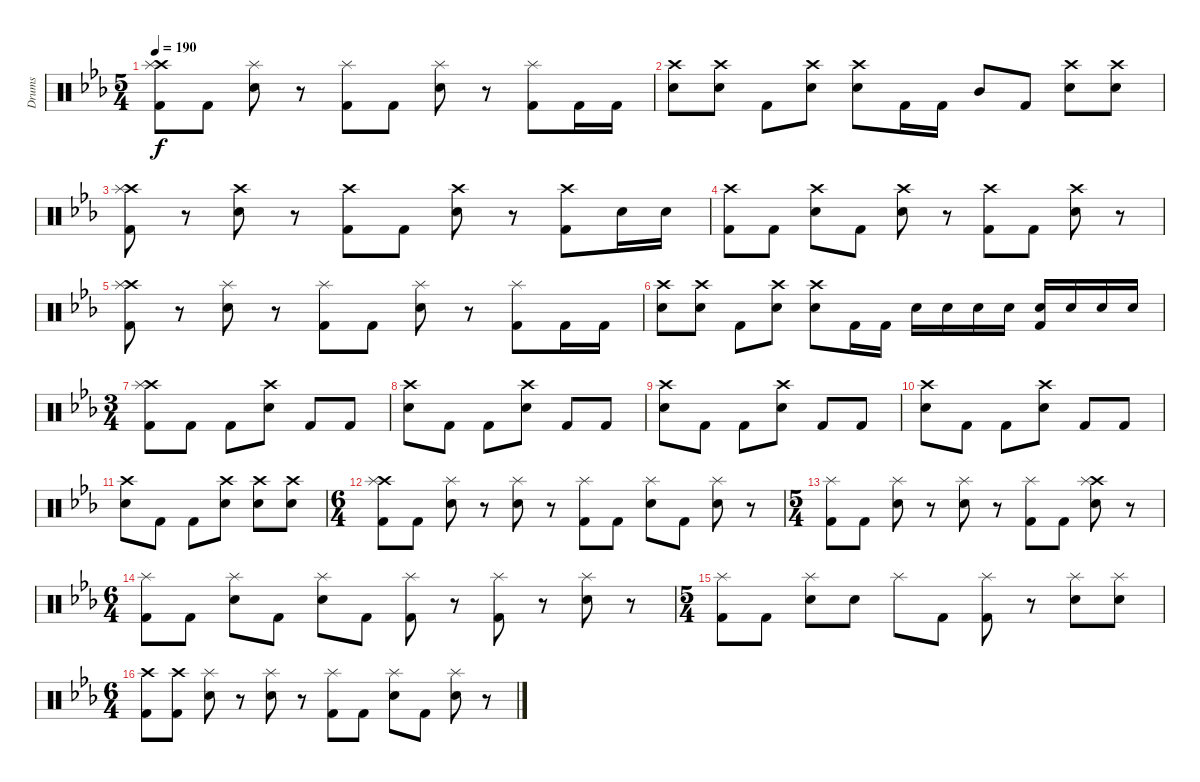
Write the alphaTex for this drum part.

\track ("Drums" "Drums") {instrument percussion}
\staff {score}
\articulation defaults
\ts (5 4)
\tempo 190
\clef neutral
\ks eb
("Kick (hit) 2" "Crash high (hit)" "Splash (hit)").8{dy f} "Kick (hit) 2".8 ("Electric Snare (hit)" "Splash (hit)").8 r.8 ("Kick (hit) 2" "Splash (hit)").8 "Kick (hit) 2".8 ("Electric Snare (hit)" "Splash (hit)").8 r.8 ("Kick (hit) 2" "Splash (hit)").8 "Kick (hit) 2".16 "Kick (hit) 2".16 |
("Electric Snare (hit)" "Crash high (hit)").8 ("Electric Snare (hit)" "Crash high (hit)").8 "Kick (hit) 2".8 ("Electric Snare (hit)" "Crash high (hit)").8 ("Electric Snare (hit)" "Crash high (hit)").8 "Kick (hit) 2".16 "Kick (hit) 2".16 "Mid Tom (hit)".8 "Kick (hit) 2".8 ("Electric Snare (hit)" "Crash high (hit)").8 ("Electric Snare (hit)" "Crash high (hit)").8 |
("Kick (hit) 2" "Crash high (hit)" "Splash (hit)").8 r.8 ("Electric Snare (hit)" "Crash high (hit)").8 r.8 ("Kick (hit) 2" "Crash high (hit)").8 "Kick (hit) 2".8 ("Electric Snare (hit)" "Crash high (hit)").8 r.8 ("Kick (hit) 2" "Crash high (hit)").8 "Electric Snare (hit)".16 "Electric Snare (hit)".16 |
("Kick (hit) 2" "Crash high (hit)").8 "Kick (hit) 2".8 ("Electric Snare (hit)" "Crash high (hit)").8 "Kick (hit) 2".8 ("Electric Snare (hit)" "Crash high (hit)").8 r.8 ("Kick (hit) 2" "Crash high (hit)").8 "Kick (hit) 2".8 ("Electric Snare (hit)" "Crash high (hit)").8 r.8 |
("Kick (hit) 2" "Crash high (hit)" "Splash (hit)").8 r.8 ("Electric Snare (hit)" "Splash (hit)").8 r.8 ("Kick (hit) 2" "Splash (hit)").8 "Kick (hit) 2".8 ("Electric Snare (hit)" "Splash (hit)").8 r.8 ("Kick (hit) 2" "Splash (hit)").8 "Kick (hit) 2".16 "Kick (hit) 2".16 |
("Electric Snare (hit)" "Crash high (hit)").8 ("Electric Snare (hit)" "Crash high (hit)").8 "Kick (hit) 2".8 ("Electric Snare (hit)" "Crash high (hit)").8 ("Electric Snare (hit)" "Crash high (hit)").8 "Kick (hit) 2".16 "Kick (hit) 2".16 "Electric Snare (hit)".16 "Electric Snare (hit)".16 "Electric Snare (hit)".16 "Electric Snare (hit)".16 ("Kick (hit) 2" "Electric Snare (hit)").16 "Electric Snare (hit)".16 "Electric Snare (hit)".16 "Electric Snare (hit)".16 |
\ts (3 4)
("Kick (hit) 2" "Crash high (hit)" "Splash (hit)").8 "Kick (hit) 2".8 "Kick (hit) 2".8 ("Electric Snare (hit)" "Crash high (hit)").8 "Kick (hit) 2".8 "Kick (hit) 2".8 |
("Electric Snare (hit)" "Crash high (hit)").8 "Kick (hit) 2".8 "Kick (hit) 2".8 ("Electric Snare (hit)" "Crash high (hit)").8 "Kick (hit) 2".8 "Kick (hit) 2".8 |
("Electric Snare (hit)" "Crash high (hit)").8 "Kick (hit) 2".8 "Kick (hit) 2".8 ("Electric Snare (hit)" "Crash high (hit)").8 "Kick (hit) 2".8 "Kick (hit) 2".8 |
("Electric Snare (hit)" "Crash high (hit)").8 "Kick (hit) 2".8 "Kick (hit) 2".8 ("Electric Snare (hit)" "Crash high (hit)").8 "Kick (hit) 2".8 "Kick (hit) 2".8 |
("Electric Snare (hit)" "Crash high (hit)").8 "Kick (hit) 2".8 "Kick (hit) 2".8 ("Electric Snare (hit)" "Crash high (hit)").8 ("Electric Snare (hit)" "Crash high (hit)").8 ("Electric Snare (hit)" "Crash high (hit)").8 |
\ts (6 4)
("Kick (hit) 2" "Crash high (hit)" "Splash (hit)").8 "Kick (hit) 2".8 ("Electric Snare (hit)" "Splash (hit)").8 r.8 ("Electric Snare (hit)" "Splash (hit)").8 r.8 ("Kick (hit) 2" "Splash (hit)").8 "Kick (hit) 2".8 ("Electric Snare (hit)" "Splash (hit)").8 "Kick (hit) 2".8 ("Electric Snare (hit)" "Splash (hit)").8 r.8 |
\ts (5 4)
("Kick (hit) 2" "Splash (hit)").8 "Kick (hit) 2".8 ("Electric Snare (hit)" "Splash (hit)").8 r.8 ("Electric Snare (hit)" "Splash (hit)").8 r.8 ("Kick (hit) 2" "Splash (hit)").8 "Kick (hit) 2".8 ("Electric Snare (hit)" "Crash high (hit)" "Splash (hit)").8 r.8 |
\ts (6 4)
("Kick (hit) 2" "Splash (hit)").8 "Kick (hit) 2".8 ("Electric Snare (hit)" "Splash (hit)").8 "Kick (hit) 2".8 ("Electric Snare (hit)" "Splash (hit)").8 "Kick (hit) 2".8 ("Kick (hit) 2" "Splash (hit)").8 r.8 ("Kick (hit) 2" "Splash (hit)").8 r.8 ("Electric Snare (hit)" "Splash (hit)").8 r.8 |
\ts (5 4)
("Kick (hit) 2" "Splash (hit)").8 "Kick (hit) 2".8 ("Electric Snare (hit)" "Splash (hit)").8 "Electric Snare (hit)".8 "Splash (hit)".8 "Kick (hit) 2".8 ("Kick (hit) 2" "Splash (hit)").8 r.8 ("Electric Snare (hit)" "Splash (hit)").8 ("Electric Snare (hit)" "Splash (hit)").8 |
\ts (6 4)
("Kick (hit) 2" "Crash high (hit)").8 ("Kick (hit) 2" "Crash high (hit)").8 ("Electric Snare (hit)" "Splash (hit)").8 r.8 ("Electric Snare (hit)" "Splash (hit)").8 r.8 ("Kick (hit) 2" "Splash (hit)").8 "Kick (hit) 2".8 ("Electric Snare (hit)" "Splash (hit)").8 "Kick (hit) 2".8 ("Electric Snare (hit)" "Splash (hit)").8 r.8
